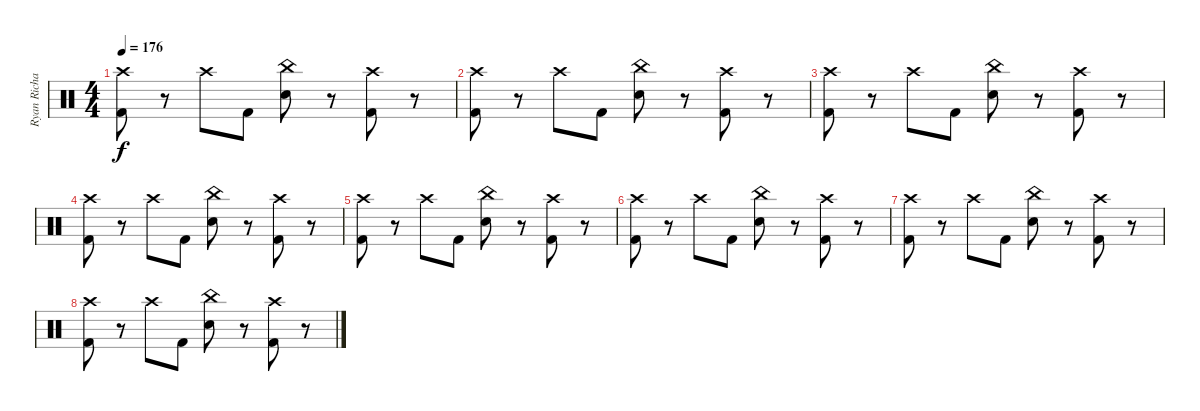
\track ("Ryan Richards (drums)" "Ryan Richa") {instrument percussion}
\staff {score}
\articulation defaults
\ts (4 4)
\tempo 176
\clef neutral
\ks c
("Crash high (hit)" "Kick (hit) 2").8{dy f} r.8 "Crash high (hit)".8 "Kick (hit) 2".8 ("Snare (hit) 2" "China (hit)").8 r.8 ("Crash high (hit)" "Kick (hit) 2").8 r.8 |
("Crash high (hit)" "Kick (hit) 2").8 r.8 "Crash high (hit)".8 "Kick (hit) 2".8 ("Snare (hit) 2" "China (hit)").8 r.8 ("Crash high (hit)" "Kick (hit) 2").8 r.8 |
("Crash high (hit)" "Kick (hit) 2").8 r.8 "Crash high (hit)".8 "Kick (hit) 2".8 ("Snare (hit) 2" "China (hit)").8 r.8 ("Crash high (hit)" "Kick (hit) 2").8 r.8 |
("Crash high (hit)" "Kick (hit) 2").8 r.8 "Crash high (hit)".8 "Kick (hit) 2".8 ("Snare (hit) 2" "China (hit)").8 r.8 ("Crash high (hit)" "Kick (hit) 2").8 r.8 |
("Crash high (hit)" "Kick (hit) 2").8 r.8 "Crash high (hit)".8 "Kick (hit) 2".8 ("Snare (hit) 2" "China (hit)").8 r.8 ("Crash high (hit)" "Kick (hit) 2").8 r.8 |
("Crash high (hit)" "Kick (hit) 2").8 r.8 "Crash high (hit)".8 "Kick (hit) 2".8 ("Snare (hit) 2" "China (hit)").8 r.8 ("Crash high (hit)" "Kick (hit) 2").8 r.8 |
("Crash high (hit)" "Kick (hit) 2").8 r.8 "Crash high (hit)".8 "Kick (hit) 2".8 ("Snare (hit) 2" "China (hit)").8 r.8 ("Crash high (hit)" "Kick (hit) 2").8 r.8 |
("Crash high (hit)" "Kick (hit) 2").8 r.8 "Crash high (hit)".8 "Kick (hit) 2".8 ("Snare (hit) 2" "China (hit)").8 r.8 ("Crash high (hit)" "Kick (hit) 2").8 r.8
